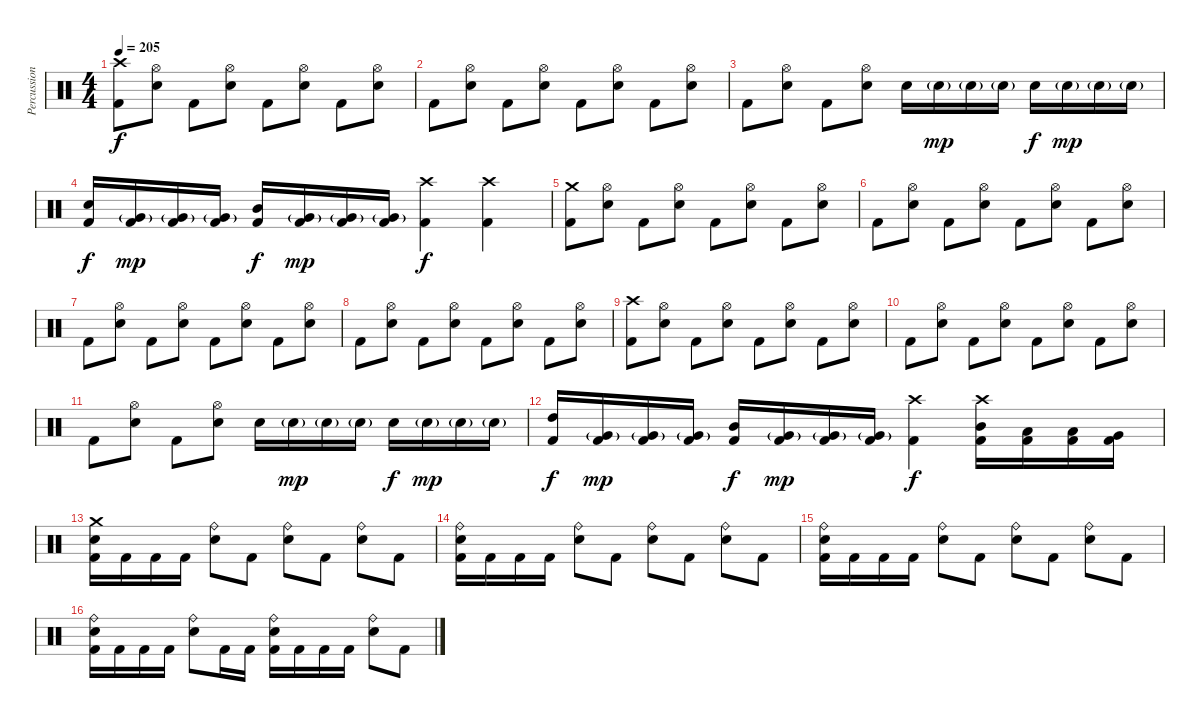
\track ("Percussions" "Percussion") {instrument percussion}
\staff {score}
\articulation defaults
\ts (4 4)
\tempo 205
\clef neutral
\ks c
("Crash high (hit)" "Kick (hit) 2").8{dy f} ("Hi-Hat (open)" "Electric Snare (hit)").8 "Kick (hit) 2".8 ("Hi-Hat (open)" "Electric Snare (hit)").8 "Kick (hit) 2".8 ("Hi-Hat (open)" "Electric Snare (hit)").8 "Kick (hit) 2".8 ("Hi-Hat (open)" "Electric Snare (hit)").8 |
"Kick (hit) 2".8 ("Hi-Hat (open)" "Electric Snare (hit)").8 "Kick (hit) 2".8 ("Hi-Hat (open)" "Electric Snare (hit)").8 "Kick (hit) 2".8 ("Hi-Hat (open)" "Electric Snare (hit)").8 "Kick (hit) 2".8 ("Hi-Hat (open)" "Electric Snare (hit)").8 |
"Kick (hit) 2".8 ("Hi-Hat (open)" "Electric Snare (hit)").8 "Kick (hit) 2".8 ("Hi-Hat (open)" "Electric Snare (hit)").8 "Electric Snare (hit)".16 "Electric Snare (hit)"{g}.16{dy mp} "Electric Snare (hit)"{g}.16 "Electric Snare (hit)"{g}.16 "Electric Snare (hit)".16{dy f} "Electric Snare (hit)"{g}.16{dy mp} "Electric Snare (hit)"{g}.16 "Electric Snare (hit)"{g}.16 |
("Electric Snare (hit)" "Kick (hit) 2").16{dy f} ("Very Low Tom (hit)"{g} "Kick (hit) 2").16{dy mp} ("Very Low Tom (hit)"{g} "Kick (hit) 2").16 ("Very Low Tom (hit)"{g} "Kick (hit) 2").16 ("Mid Tom (hit)" "Kick (hit) 2").16{dy f} ("Very Low Tom (hit)"{g} "Kick (hit) 2").16{dy mp} ("Very Low Tom (hit)"{g} "Kick (hit) 2").16 ("Very Low Tom (hit)"{g} "Kick (hit) 2").16 ("Crash high (hit)" "Kick (hit) 2").4{dy f} ("Crash high (hit)" "Kick (hit) 2").4 |
("Crash medium (hit)" "Kick (hit) 2").8 ("Hi-Hat (open)" "Electric Snare (hit)").8 "Kick (hit) 2".8 ("Hi-Hat (open)" "Electric Snare (hit)").8 "Kick (hit) 2".8 ("Hi-Hat (open)" "Electric Snare (hit)").8 "Kick (hit) 2".8 ("Hi-Hat (open)" "Electric Snare (hit)").8 |
"Kick (hit) 2".8 ("Hi-Hat (open)" "Electric Snare (hit)").8 "Kick (hit) 2".8 ("Hi-Hat (open)" "Electric Snare (hit)").8 "Kick (hit) 2".8 ("Hi-Hat (open)" "Electric Snare (hit)").8 "Kick (hit) 2".8 ("Hi-Hat (open)" "Electric Snare (hit)").8 |
"Kick (hit) 2".8 ("Hi-Hat (open)" "Electric Snare (hit)").8 "Kick (hit) 2".8 ("Hi-Hat (open)" "Electric Snare (hit)").8 "Kick (hit) 2".8 ("Hi-Hat (open)" "Electric Snare (hit)").8 "Kick (hit) 2".8 ("Hi-Hat (open)" "Electric Snare (hit)").8 |
"Kick (hit) 2".8 ("Hi-Hat (open)" "Electric Snare (hit)").8 "Kick (hit) 2".8 ("Hi-Hat (open)" "Electric Snare (hit)").8 "Kick (hit) 2".8 ("Hi-Hat (open)" "Electric Snare (hit)").8 "Kick (hit) 2".8 ("Hi-Hat (open)" "Electric Snare (hit)").8 |
("Crash high (hit)" "Kick (hit) 2").8 ("Hi-Hat (open)" "Electric Snare (hit)").8 "Kick (hit) 2".8 ("Hi-Hat (open)" "Electric Snare (hit)").8 "Kick (hit) 2".8 ("Hi-Hat (open)" "Electric Snare (hit)").8 "Kick (hit) 2".8 ("Hi-Hat (open)" "Electric Snare (hit)").8 |
"Kick (hit) 2".8 ("Hi-Hat (open)" "Electric Snare (hit)").8 "Kick (hit) 2".8 ("Hi-Hat (open)" "Electric Snare (hit)").8 "Kick (hit) 2".8 ("Hi-Hat (open)" "Electric Snare (hit)").8 "Kick (hit) 2".8 ("Hi-Hat (open)" "Electric Snare (hit)").8 |
"Kick (hit) 2".8 ("Hi-Hat (open)" "Electric Snare (hit)").8 "Kick (hit) 2".8 ("Hi-Hat (open)" "Electric Snare (hit)").8 "Electric Snare (hit)".16 "Electric Snare (hit)"{g}.16{dy mp} "Electric Snare (hit)"{g}.16 "Electric Snare (hit)"{g}.16 "Electric Snare (hit)".16{dy f} "Electric Snare (hit)"{g}.16{dy mp} "Electric Snare (hit)"{g}.16 "Electric Snare (hit)"{g}.16 |
("High Tom (hit)" "Kick (hit) 2").16{dy f} ("Very Low Tom (hit)"{g} "Kick (hit) 2").16{dy mp} ("Very Low Tom (hit)"{g} "Kick (hit) 2").16 ("Very Low Tom (hit)"{g} "Kick (hit) 2").16 ("Mid Tom (hit)" "Kick (hit) 2").16{dy f} ("Very Low Tom (hit)"{g} "Kick (hit) 2").16{dy mp} ("Very Low Tom (hit)"{g} "Kick (hit) 2").16 ("Very Low Tom (hit)"{g} "Kick (hit) 2").16 ("Crash high (hit)" "Kick (hit) 2").4{dy f} ("Crash high (hit)" "Mid Tom (hit)" "Kick (hit) 2").16 ("Low Tom (hit)" "Kick (hit) 2").16 ("Low Tom (hit)" "Kick (hit) 2").16 ("Very Low Tom (hit)" "Kick (hit) 2").16 |
("Crash medium (hit)" "Electric Snare (hit)" "Kick (hit) 2").16 "Kick (hit) 2".16 "Kick (hit) 2".16 "Kick (hit) 2".16 ("Ride (bell)" "Electric Snare (hit)").8 "Kick (hit) 2".8 ("Ride (bell)" "Electric Snare (hit)").8 "Kick (hit) 2".8 ("Ride (bell)" "Electric Snare (hit)").8 "Kick (hit) 2".8 |
("Ride (bell)" "Electric Snare (hit)" "Kick (hit) 2").16 "Kick (hit) 2".16 "Kick (hit) 2".16 "Kick (hit) 2".16 ("Ride (bell)" "Electric Snare (hit)").8 "Kick (hit) 2".8 ("Ride (bell)" "Electric Snare (hit)").8 "Kick (hit) 2".8 ("Ride (bell)" "Electric Snare (hit)").8 "Kick (hit) 2".8 |
("Ride (bell)" "Electric Snare (hit)" "Kick (hit) 2").16 "Kick (hit) 2".16 "Kick (hit) 2".16 "Kick (hit) 2".16 ("Ride (bell)" "Electric Snare (hit)").8 "Kick (hit) 2".8 ("Ride (bell)" "Electric Snare (hit)").8 "Kick (hit) 2".8 ("Ride (bell)" "Electric Snare (hit)").8 "Kick (hit) 2".8 |
("Ride (bell)" "Electric Snare (hit)" "Kick (hit) 2").16 "Kick (hit) 2".16 "Kick (hit) 2".16 "Kick (hit) 2".16 ("Ride (bell)" "Electric Snare (hit)").8 "Kick (hit) 2".16 "Kick (hit) 2".16 ("Ride (bell)" "Electric Snare (hit)" "Kick (hit) 2").16 "Kick (hit) 2".16 "Kick (hit) 2".16 "Kick (hit) 2".16 ("Ride (bell)" "Electric Snare (hit)").8 "Kick (hit) 2".8
